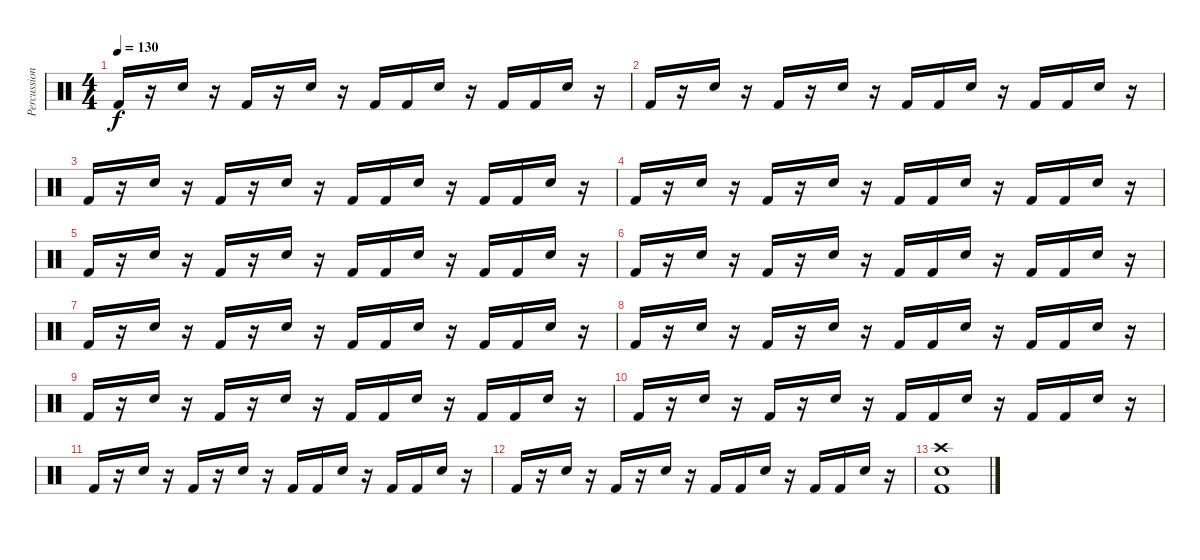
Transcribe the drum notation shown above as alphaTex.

\track ("Percussion" "Percussion") {instrument percussion}
\staff {score}
\articulation defaults
\ts (4 4)
\tempo 130
\clef neutral
\ks c "Kick (hit) 2".16{dy f}
r.16 "Snare (hit) 2".16 r.16 "Kick (hit) 2".16 r.16 "Snare (hit) 2".16 r.16 "Kick (hit) 2".16 "Kick (hit) 2".16 "Snare (hit) 2".16 r.16 "Kick (hit) 2".16 "Kick (hit) 2".16 "Snare (hit) 2".16 r.16 |
"Kick (hit) 2".16 r.16 "Snare (hit) 2".16 r.16 "Kick (hit) 2".16 r.16 "Snare (hit) 2".16 r.16 "Kick (hit) 2".16 "Kick (hit) 2".16 "Snare (hit) 2".16 r.16 "Kick (hit) 2".16 "Kick (hit) 2".16 "Snare (hit) 2".16 r.16 |
"Kick (hit) 2".16 r.16 "Snare (hit) 2".16 r.16 "Kick (hit) 2".16 r.16 "Snare (hit) 2".16 r.16 "Kick (hit) 2".16 "Kick (hit) 2".16 "Snare (hit) 2".16 r.16 "Kick (hit) 2".16 "Kick (hit) 2".16 "Snare (hit) 2".16 r.16 |
"Kick (hit) 2".16 r.16 "Snare (hit) 2".16 r.16 "Kick (hit) 2".16 r.16 "Snare (hit) 2".16 r.16 "Kick (hit) 2".16 "Kick (hit) 2".16 "Snare (hit) 2".16 r.16 "Kick (hit) 2".16 "Kick (hit) 2".16 "Snare (hit) 2".16 r.16 |
"Kick (hit) 2".16 r.16 "Snare (hit) 2".16 r.16 "Kick (hit) 2".16 r.16 "Snare (hit) 2".16 r.16 "Kick (hit) 2".16 "Kick (hit) 2".16 "Snare (hit) 2".16 r.16 "Kick (hit) 2".16 "Kick (hit) 2".16 "Snare (hit) 2".16 r.16 |
"Kick (hit) 2".16 r.16 "Snare (hit) 2".16 r.16 "Kick (hit) 2".16 r.16 "Snare (hit) 2".16 r.16 "Kick (hit) 2".16 "Kick (hit) 2".16 "Snare (hit) 2".16 r.16 "Kick (hit) 2".16 "Kick (hit) 2".16 "Snare (hit) 2".16 r.16 |
"Kick (hit) 2".16 r.16 "Snare (hit) 2".16 r.16 "Kick (hit) 2".16 r.16 "Snare (hit) 2".16 r.16 "Kick (hit) 2".16 "Kick (hit) 2".16 "Snare (hit) 2".16 r.16 "Kick (hit) 2".16 "Kick (hit) 2".16 "Snare (hit) 2".16 r.16 |
"Kick (hit) 2".16 r.16 "Snare (hit) 2".16 r.16 "Kick (hit) 2".16 r.16 "Snare (hit) 2".16 r.16 "Kick (hit) 2".16 "Kick (hit) 2".16 "Snare (hit) 2".16 r.16 "Kick (hit) 2".16 "Kick (hit) 2".16 "Snare (hit) 2".16 r.16 |
"Kick (hit) 2".16 r.16 "Snare (hit) 2".16 r.16 "Kick (hit) 2".16 r.16 "Snare (hit) 2".16 r.16 "Kick (hit) 2".16 "Kick (hit) 2".16 "Snare (hit) 2".16 r.16 "Kick (hit) 2".16 "Kick (hit) 2".16 "Snare (hit) 2".16 r.16 |
"Kick (hit) 2".16 r.16 "Snare (hit) 2".16 r.16 "Kick (hit) 2".16 r.16 "Snare (hit) 2".16 r.16 "Kick (hit) 2".16 "Kick (hit) 2".16 "Snare (hit) 2".16 r.16 "Kick (hit) 2".16 "Kick (hit) 2".16 "Snare (hit) 2".16 r.16 |
"Kick (hit) 2".16 r.16 "Snare (hit) 2".16 r.16 "Kick (hit) 2".16 r.16 "Snare (hit) 2".16 r.16 "Kick (hit) 2".16 "Kick (hit) 2".16 "Snare (hit) 2".16 r.16 "Kick (hit) 2".16 "Kick (hit) 2".16 "Snare (hit) 2".16 r.16 |
"Kick (hit) 2".16 r.16 "Snare (hit) 2".16 r.16 "Kick (hit) 2".16 r.16 "Snare (hit) 2".16 r.16 "Kick (hit) 2".16 "Kick (hit) 2".16 "Snare (hit) 2".16 r.16 "Kick (hit) 2".16 "Kick (hit) 2".16 "Snare (hit) 2".16 r.16 |
("Crash high (hit)" "Snare (hit) 2" "Kick (hit) 2").1
